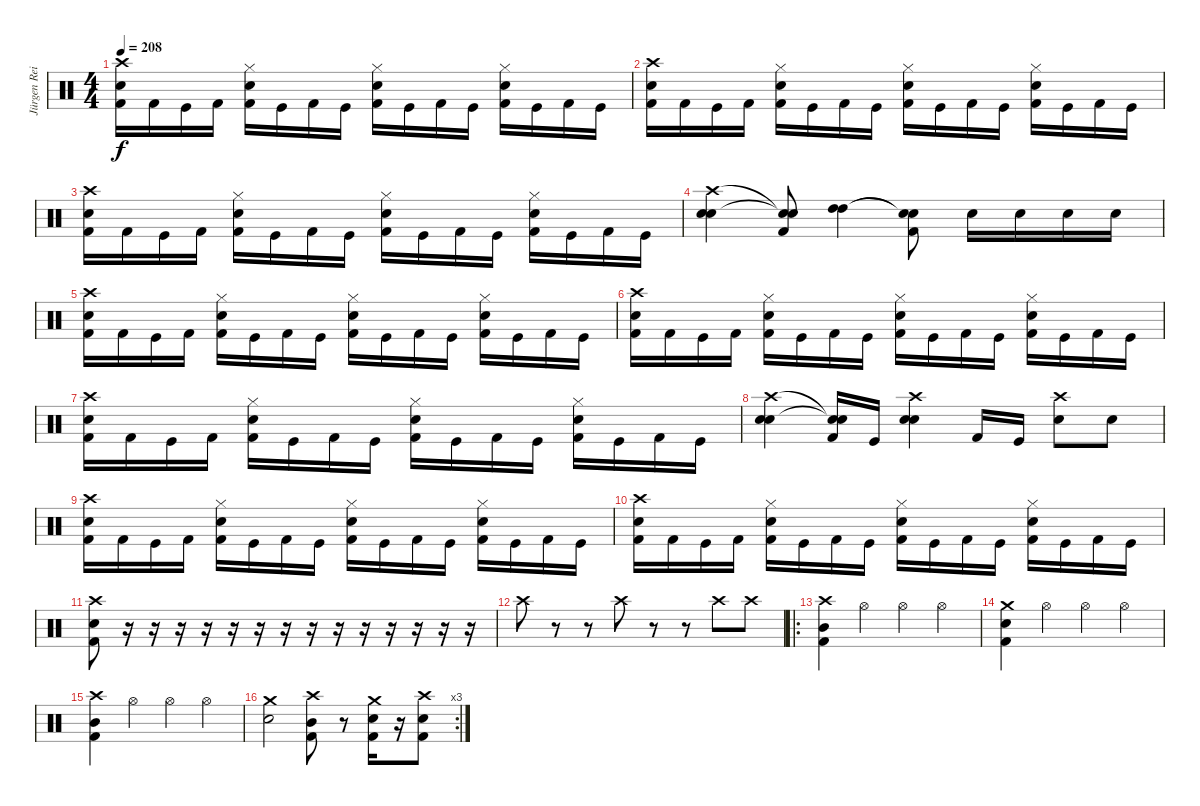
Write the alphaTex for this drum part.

\track ("Jürgen Reil" "Jürgen Rei") {instrument percussion}
\staff {score}
\articulation defaults
\ts (4 4)
\tempo 208
\clef neutral
\ks c
("Crash high (hit)" "Electric Snare (hit)" "Kick (hit) 2").16{dy f} "Kick (hit) 2".16 "Kick (hit)".16 "Kick (hit) 2".16 ("Hi-Hat (closed)" "Electric Snare (hit)" "Kick (hit) 2").16 "Kick (hit)".16 "Kick (hit) 2".16 "Kick (hit)".16 ("Hi-Hat (closed)" "Electric Snare (hit)" "Kick (hit) 2").16 "Kick (hit)".16 "Kick (hit) 2".16 "Kick (hit)".16 ("Hi-Hat (closed)" "Electric Snare (hit)" "Kick (hit) 2").16 "Kick (hit)".16 "Kick (hit) 2".16 "Kick (hit)".16 |
("Crash high (hit)" "Electric Snare (hit)" "Kick (hit) 2").16 "Kick (hit) 2".16 "Kick (hit)".16 "Kick (hit) 2".16 ("Hi-Hat (closed)" "Electric Snare (hit)" "Kick (hit) 2").16 "Kick (hit)".16 "Kick (hit) 2".16 "Kick (hit)".16 ("Hi-Hat (closed)" "Electric Snare (hit)" "Kick (hit) 2").16 "Kick (hit)".16 "Kick (hit) 2".16 "Kick (hit)".16 ("Hi-Hat (closed)" "Electric Snare (hit)" "Kick (hit) 2").16 "Kick (hit)".16 "Kick (hit) 2".16 "Kick (hit)".16 |
("Crash high (hit)" "Electric Snare (hit)" "Kick (hit) 2").16 "Kick (hit) 2".16 "Kick (hit)".16 "Kick (hit) 2".16 ("Hi-Hat (closed)" "Electric Snare (hit)" "Kick (hit) 2").16 "Kick (hit)".16 "Kick (hit) 2".16 "Kick (hit)".16 ("Hi-Hat (closed)" "Electric Snare (hit)" "Kick (hit) 2").16 "Kick (hit)".16 "Kick (hit) 2".16 "Kick (hit)".16 ("Hi-Hat (closed)" "Electric Snare (hit)" "Kick (hit) 2").16 "Kick (hit)".16 "Kick (hit) 2".16 "Kick (hit)".16 |
("Crash high (hit)" "Electric Snare (hit)" "Electric Snare (hit)").4 ("Snare (hit)"{t} "Snare (hit)"{t} "Kick (hit) 2").8 ("High Tom (hit)" "High Tom (hit)").4 ("Snare (hit)"{t} "Electric Snare (hit)"{t} "Kick (hit) 2").8 "Electric Snare (hit)".16 "Electric Snare (hit)".16 "Electric Snare (hit)".16 "Electric Snare (hit)".16 |
("Crash high (hit)" "Electric Snare (hit)" "Kick (hit) 2").16 "Kick (hit) 2".16 "Kick (hit)".16 "Kick (hit) 2".16 ("Hi-Hat (closed)" "Electric Snare (hit)" "Kick (hit) 2").16 "Kick (hit)".16 "Kick (hit) 2".16 "Kick (hit)".16 ("Hi-Hat (closed)" "Electric Snare (hit)" "Kick (hit) 2").16 "Kick (hit)".16 "Kick (hit) 2".16 "Kick (hit)".16 ("Hi-Hat (closed)" "Electric Snare (hit)" "Kick (hit) 2").16 "Kick (hit)".16 "Kick (hit) 2".16 "Kick (hit)".16 |
("Crash high (hit)" "Electric Snare (hit)" "Kick (hit) 2").16 "Kick (hit) 2".16 "Kick (hit)".16 "Kick (hit) 2".16 ("Hi-Hat (closed)" "Electric Snare (hit)" "Kick (hit) 2").16 "Kick (hit)".16 "Kick (hit) 2".16 "Kick (hit)".16 ("Hi-Hat (closed)" "Electric Snare (hit)" "Kick (hit) 2").16 "Kick (hit)".16 "Kick (hit) 2".16 "Kick (hit)".16 ("Hi-Hat (closed)" "Electric Snare (hit)" "Kick (hit) 2").16 "Kick (hit)".16 "Kick (hit) 2".16 "Kick (hit)".16 |
("Crash high (hit)" "Electric Snare (hit)" "Kick (hit) 2").16 "Kick (hit) 2".16 "Kick (hit)".16 "Kick (hit) 2".16 ("Hi-Hat (closed)" "Electric Snare (hit)" "Kick (hit) 2").16 "Kick (hit)".16 "Kick (hit) 2".16 "Kick (hit)".16 ("Hi-Hat (closed)" "Electric Snare (hit)" "Kick (hit) 2").16 "Kick (hit)".16 "Kick (hit) 2".16 "Kick (hit)".16 ("Hi-Hat (closed)" "Electric Snare (hit)" "Kick (hit) 2").16 "Kick (hit)".16 "Kick (hit) 2".16 "Kick (hit)".16 |
("Crash high (hit)" "Electric Snare (hit)" "Electric Snare (hit)").4 ("Snare (hit)"{t} "Snare (hit)"{t} "Kick (hit) 2").16 "Kick (hit)".16 ("Crash high (hit)" "Electric Snare (hit)" "Electric Snare (hit)").4 "Kick (hit) 2".16 "Kick (hit)".16 ("Crash high (hit)" "Electric Snare (hit)").8 "Electric Snare (hit)".8 |
("Crash high (hit)" "Electric Snare (hit)" "Kick (hit) 2").16 "Kick (hit) 2".16 "Kick (hit)".16 "Kick (hit) 2".16 ("Hi-Hat (closed)" "Electric Snare (hit)" "Kick (hit) 2").16 "Kick (hit)".16 "Kick (hit) 2".16 "Kick (hit)".16 ("Hi-Hat (closed)" "Electric Snare (hit)" "Kick (hit) 2").16 "Kick (hit)".16 "Kick (hit) 2".16 "Kick (hit)".16 ("Hi-Hat (closed)" "Electric Snare (hit)" "Kick (hit) 2").16 "Kick (hit)".16 "Kick (hit) 2".16 "Kick (hit)".16 |
("Crash high (hit)" "Electric Snare (hit)" "Kick (hit) 2").16 "Kick (hit) 2".16 "Kick (hit)".16 "Kick (hit) 2".16 ("Hi-Hat (closed)" "Electric Snare (hit)" "Kick (hit) 2").16 "Kick (hit)".16 "Kick (hit) 2".16 "Kick (hit)".16 ("Hi-Hat (closed)" "Electric Snare (hit)" "Kick (hit) 2").16 "Kick (hit)".16 "Kick (hit) 2".16 "Kick (hit)".16 ("Hi-Hat (closed)" "Electric Snare (hit)" "Kick (hit) 2").16 "Kick (hit)".16 "Kick (hit) 2".16 "Kick (hit)".16 |
("Crash high (hit)" "Electric Snare (hit)" "Kick (hit) 2").8 r.16 r.16 r.16 r.16 r.16 r.16 r.16 r.16 r.16 r.16 r.16 r.16 r.16 r.16 |
"Crash high (hit)".8 r.8 r.8 "Crash high (hit)".8 r.8 r.8 "Crash high (hit)".8 "Crash high (hit)".8 |
\ro
("Crash high (hit)" "Mid Tom (hit)" "Kick (hit) 2").4 "Hi-Hat (open)".4 "Hi-Hat (open)".4 "Hi-Hat (open)".4 |
("Crash medium (hit)" "Kick (hit) 2" "Electric Snare (hit)").4 "Hi-Hat (open)".4 "Hi-Hat (open)".4 "Hi-Hat (open)".4 |
("Crash high (hit)" "Mid Tom (hit)" "Kick (hit) 2").4 "Hi-Hat (open)".4 "Hi-Hat (open)".4 "Hi-Hat (open)".4 |
\rc 3
("Crash medium (hit)" "Electric Snare (hit)").2 ("Crash high (hit)" "Mid Tom (hit)" "Kick (hit) 2").8 r.8 ("Crash medium (hit)" "Electric Snare (hit)" "Kick (hit) 2").16 r.16 ("Crash high (hit)" "Electric Snare (hit)" "Kick (hit) 2").8
